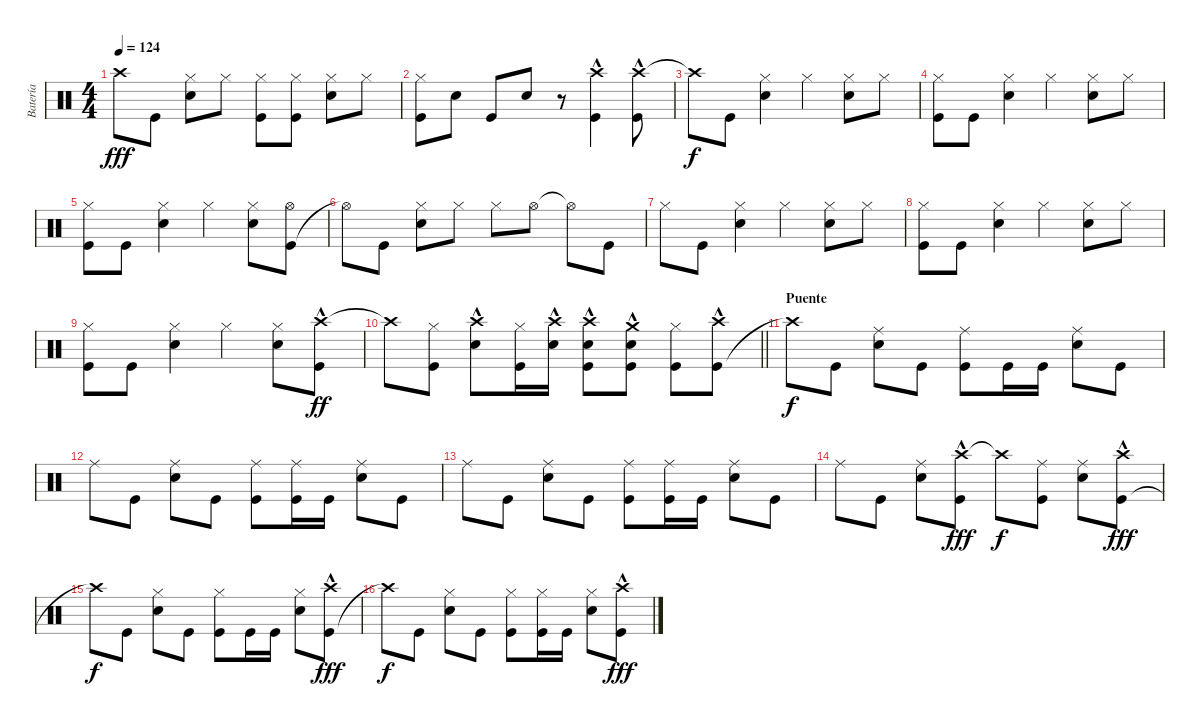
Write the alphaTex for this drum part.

\track ("Batería" "Batería") {instrument percussion}
\staff {score}
\articulation defaults
\ts (4 4)
\tempo 124
\clef neutral
\ks c "Crash high (hit)"{t}.8{dy fff} "Kick (hit)".8
("Hi-Hat (closed)" "Snare (hit) 2").8 "Hi-Hat (closed)".8 ("Kick (hit)" "Hi-Hat (closed)").8 ("Hi-Hat (closed)" "Kick (hit)").8 ("Snare (hit) 2" "Hi-Hat (closed)").8 "Hi-Hat (closed)".8 |
("Hi-Hat (closed)" "Kick (hit)").8 "Snare (hit) 2".8 "Kick (hit)".8 "Snare (hit) 2".8 r.8 ("Kick (hit)" "Crash high (hit)"{hac}).4 ("Crash high (hit)" "Kick (hit)"{hac}).8 |
"Crash high (hit)"{t}.8{dy f} "Kick (hit)".8 ("Snare (hit) 2" "Hi-Hat (closed)").4 "Hi-Hat (closed)".4 ("Snare (hit) 2" "Hi-Hat (closed)").8 "Hi-Hat (closed)".8 |
("Kick (hit)" "Hi-Hat (closed)").8 "Kick (hit)".8 ("Snare (hit) 2" "Hi-Hat (closed)").4 "Hi-Hat (closed)".4 ("Snare (hit) 2" "Hi-Hat (closed)").8 "Hi-Hat (closed)".8 |
("Kick (hit)" "Hi-Hat (closed)").8 "Kick (hit)".8 ("Snare (hit) 2" "Hi-Hat (closed)").4 "Hi-Hat (closed)".4 ("Hi-Hat (closed)" "Snare (hit) 2").8 ("Kick (hit)" "Hi-Hat (open)").8 |
"Hi-Hat (open)"{t}.8 "Kick (hit)".8 ("Snare (hit) 2" "Hi-Hat (closed)").8 "Hi-Hat (closed)".8 "Hi-Hat (closed)".8 "Hi-Hat (open)".8 "Hi-Hat (open)"{t}.8 "Kick (hit)".8 |
"Hi-Hat (closed)".8 "Kick (hit)".8 ("Hi-Hat (closed)" "Snare (hit) 2").4 "Hi-Hat (closed)".4 ("Snare (hit) 2" "Hi-Hat (closed)").8 "Hi-Hat (closed)".8 |
("Kick (hit)" "Hi-Hat (closed)").8 "Kick (hit)".8 ("Snare (hit) 2" "Hi-Hat (closed)").4 "Hi-Hat (closed)".4 ("Snare (hit) 2" "Hi-Hat (closed)").8 "Hi-Hat (closed)".8 |
("Kick (hit)" "Hi-Hat (closed)").8 "Kick (hit)".8 ("Snare (hit) 2" "Hi-Hat (closed)").4 "Hi-Hat (closed)".4 ("Snare (hit) 2" "Hi-Hat (closed)").8 ("Crash high (hit)"{hac} "Kick (hit)").8{dy ff} |
\barLineRight lightlight "Crash high (hit)"{t}.8
("Kick (hit)" "Hi-Hat (closed)").8 ("Crash high (hit)" "Snare (hit) 2"{hac}).8 ("Kick (hit)" "Hi-Hat (closed)").16 ("Snare (hit) 2" "Crash high (hit)"{hac}).16 ("Kick (hit)" "Snare (hit) 2" "Crash high (hit)"{hac}).8 ("Crash medium (hit)"{hac} "Snare (hit) 2" "Kick (hit)").8 ("Hi-Hat (closed)" "Kick (hit)").8 ("Kick (hit)" "Crash high (hit)"{hac}).8 |
\section ("" "Puente")
"Crash high (hit)"{t}.8{dy f} "Kick (hit)".8 ("Snare (hit) 2" "Ride (middle)").8 "Kick (hit)".8 ("Ride (middle)" "Kick (hit)").8 "Kick (hit)".16 "Kick (hit)".16 ("Snare (hit) 2" "Ride (middle)").8 "Kick (hit)".8 |
"Ride (middle)".8 "Kick (hit)".8 ("Snare (hit) 2" "Ride (middle)").8 "Kick (hit)".8 ("Ride (middle)" "Kick (hit)").8 ("Kick (hit)" "Ride (middle)").16 "Kick (hit)".16 ("Ride (middle)" "Snare (hit) 2").8 "Kick (hit)".8 |
"Ride (middle)".8 "Kick (hit)".8 ("Snare (hit) 2" "Ride (middle)").8 "Kick (hit)".8 ("Ride (middle)" "Kick (hit)").8 ("Kick (hit)" "Ride (middle)").16 "Kick (hit)".16 ("Ride (middle)" "Snare (hit) 2").8 "Kick (hit)".8 |
"Ride (middle)".8 "Kick (hit)".8 ("Ride (middle)" "Snare (hit) 2").8 ("Crash high (hit)"{hac} "Kick (hit)").8{dy fff} "Crash high (hit)"{t}.8{dy f} ("Ride (middle)" "Kick (hit)").8 ("Snare (hit) 2" "Ride (middle)").8 ("Kick (hit)" "Crash high (hit)"{hac}).8{dy fff} |
"Crash high (hit)"{t}.8{dy f} "Kick (hit)".8 ("Snare (hit) 2" "Hi-Hat (closed)").8 "Kick (hit)".8 ("Hi-Hat (closed)" "Kick (hit)").8 "Kick (hit)".16 "Kick (hit)".16 ("Snare (hit) 2" "Hi-Hat (closed)").8 ("Kick (hit)" "Crash high (hit)"{hac}).8{dy fff} |
"Crash high (hit)"{t}.8{dy f} "Kick (hit)".8 ("Snare (hit) 2" "Hi-Hat (closed)").8 "Kick (hit)".8 ("Kick (hit)" "Hi-Hat (closed)").8 ("Kick (hit)" "Hi-Hat (closed)").16 "Kick (hit)".16 ("Hi-Hat (closed)" "Snare (hit) 2").8 ("Kick (hit)" "Crash high (hit)"{hac}).8{dy fff}
